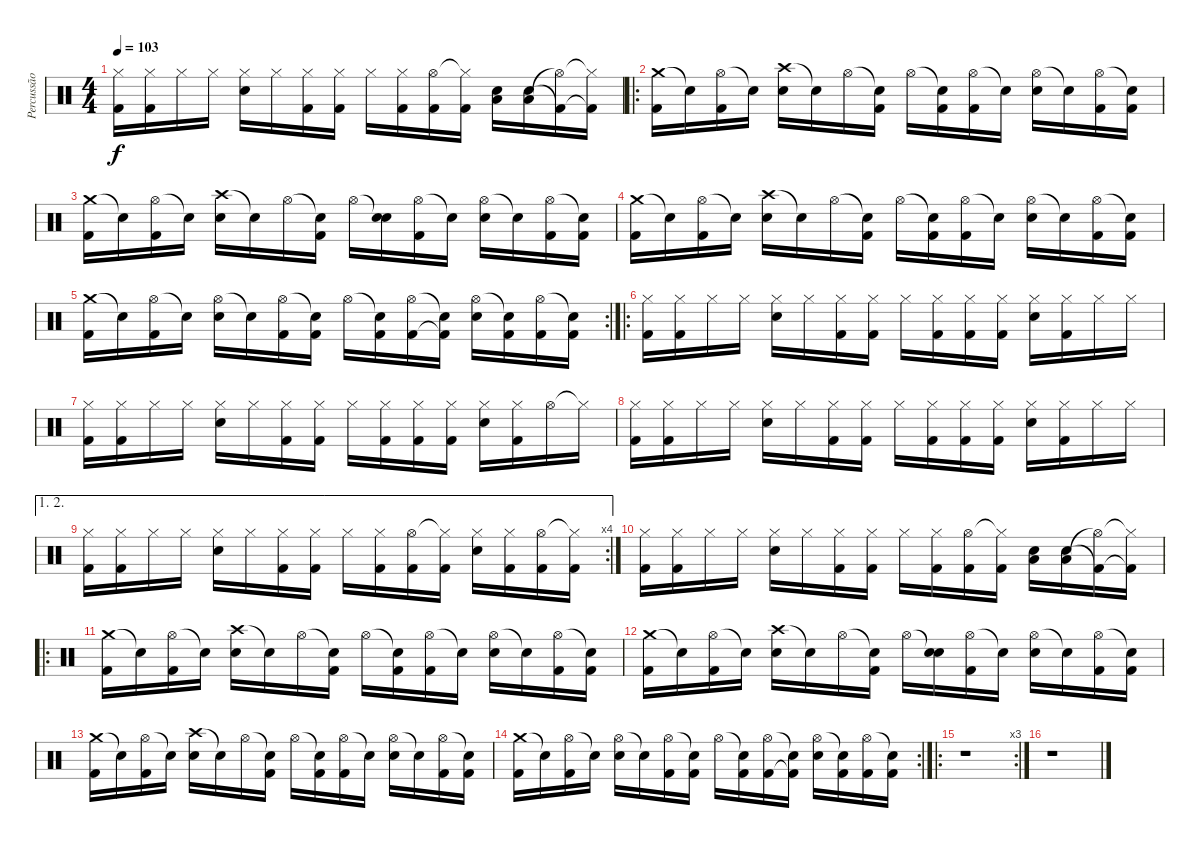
\track ("Percussão" "Percussão") {instrument percussion}
\staff {score}
\articulation defaults
\ts (4 4)
\tempo 103
\clef neutral
\ks c
("Hi-Hat (closed)" "Kick (hit) 2").16{dy f} ("Hi-Hat (closed)" "Kick (hit) 2").16 "Hi-Hat (closed)".16 "Hi-Hat (closed)".16 ("Hi-Hat (closed)" "Electric Snare (hit)").16 "Hi-Hat (closed)".16 ("Hi-Hat (closed)" "Kick (hit) 2").16 ("Hi-Hat (closed)" "Kick (hit) 2").16 "Hi-Hat (closed)".16 ("Hi-Hat (closed)" "Kick (hit) 2").16 ("Hi-Hat (open)" "Kick (hit) 2").16 ("Hi-Hat (closed)"{t} "Kick (hit) 2").16 ("Low Floor Tom (hit)" "Electric Snare (hit)").16 ("Low Floor Tom (hit)" "Electric Snare (hit)").16 ("Hi-Hat (open)"{t} "Kick (hit) 2"{t}).16 ("Hi-Hat (closed)"{t} "Kick (hit) 2"{t}).16 |
\ro
("Crash medium (hit)" "Kick (hit) 2").16 "Snare (hit)"{t}.16 ("Hi-Hat (open)" "Kick (hit) 2").16 "Snare (hit)"{t}.16 ("Crash high (hit)" "Electric Snare (hit)").16 "Snare (hit)"{t}.16 "Hi-Hat (open)".16 ("Snare (hit)"{t} "Kick (hit) 2").16 "Hi-Hat (open)".16 ("Snare (hit)"{t} "Kick (hit) 2").16 ("Hi-Hat (open)" "Kick (hit) 2").16 "Snare (hit)"{t}.16 ("Hi-Hat (open)" "Electric Snare (hit)").16 "Snare (hit)"{t}.16 ("Hi-Hat (open)" "Kick (hit) 2").16 ("Snare (hit)"{t} "Kick (hit) 2").16 |
("Crash medium (hit)" "Kick (hit) 2").16 "Snare (hit)"{t}.16 ("Hi-Hat (open)" "Kick (hit) 2").16 "Snare (hit)"{t}.16 ("Crash high (hit)" "Electric Snare (hit)").16 "Snare (hit)"{t}.16 "Hi-Hat (open)".16 ("Snare (hit)"{t} "Kick (hit) 2").16 "Hi-Hat (open)".16 ("Snare (hit)"{t} "Electric Snare (hit)").16 ("Hi-Hat (open)" "Kick (hit) 2").16 "Snare (hit)"{t}.16 ("Hi-Hat (open)" "Electric Snare (hit)").16 "Snare (hit)"{t}.16 ("Hi-Hat (open)" "Kick (hit) 2").16 ("Snare (hit)"{t} "Kick (hit) 2").16 |
("Crash medium (hit)" "Kick (hit) 2").16 "Snare (hit)"{t}.16 ("Hi-Hat (open)" "Kick (hit) 2").16 "Snare (hit)"{t}.16 ("Crash high (hit)" "Electric Snare (hit)").16 "Snare (hit)"{t}.16 "Hi-Hat (open)".16 ("Snare (hit)"{t} "Kick (hit) 2").16 "Hi-Hat (open)".16 ("Snare (hit)"{t} "Kick (hit) 2").16 ("Hi-Hat (open)" "Kick (hit) 2").16 "Snare (hit)"{t}.16 ("Hi-Hat (open)" "Electric Snare (hit)").16 "Snare (hit)"{t}.16 ("Hi-Hat (open)" "Kick (hit) 2").16 ("Snare (hit)"{t} "Kick (hit) 2").16 |
\rc 2
("Crash medium (hit)" "Kick (hit) 2").16 "Snare (hit)"{t}.16 ("Hi-Hat (open)" "Kick (hit) 2").16 "Snare (hit)"{t}.16 ("Hi-Hat (open)" "Electric Snare (hit)").16 "Snare (hit)"{t}.16 ("Hi-Hat (open)" "Kick (hit) 2").16 ("Snare (hit)"{t} "Kick (hit) 2").16 "Hi-Hat (open)".16 ("Snare (hit)"{t} "Kick (hit) 2").16 ("Hi-Hat (open)" "Kick (hit) 2").16 ("Snare (hit)"{t} "Kick (hit) 2"{t}).16 ("Hi-Hat (open)" "Electric Snare (hit)").16 ("Snare (hit)"{t} "Kick (hit) 2").16 ("Hi-Hat (open)" "Kick (hit) 2").16 ("Snare (hit)"{t} "Kick (hit) 2").16 |
\ro
("Hi-Hat (closed)" "Kick (hit) 2").16 ("Hi-Hat (closed)" "Kick (hit) 2").16 "Hi-Hat (closed)".16 "Hi-Hat (closed)".16 ("Hi-Hat (closed)" "Electric Snare (hit)").16 "Hi-Hat (closed)".16 ("Hi-Hat (closed)" "Kick (hit) 2").16 ("Hi-Hat (closed)" "Kick (hit) 2").16 "Hi-Hat (closed)".16 ("Hi-Hat (closed)" "Kick (hit) 2").16 ("Hi-Hat (closed)" "Kick (hit) 2").16 ("Hi-Hat (closed)" "Kick (hit) 2").16 ("Hi-Hat (closed)" "Electric Snare (hit)").16 ("Hi-Hat (closed)" "Kick (hit) 2").16 "Hi-Hat (closed)".16 "Hi-Hat (closed)".16 |
("Hi-Hat (closed)" "Kick (hit) 2").16 ("Hi-Hat (closed)" "Kick (hit) 2").16 "Hi-Hat (closed)".16 "Hi-Hat (closed)".16 ("Hi-Hat (closed)" "Electric Snare (hit)").16 "Hi-Hat (closed)".16 ("Hi-Hat (closed)" "Kick (hit) 2").16 ("Hi-Hat (closed)" "Kick (hit) 2").16 "Hi-Hat (closed)".16 ("Hi-Hat (closed)" "Kick (hit) 2").16 ("Hi-Hat (closed)" "Kick (hit) 2").16 ("Hi-Hat (closed)" "Kick (hit) 2").16 ("Hi-Hat (closed)" "Electric Snare (hit)").16 ("Hi-Hat (closed)" "Kick (hit) 2").16 "Hi-Hat (open)".16 "Hi-Hat (closed)"{t}.16 |
("Hi-Hat (closed)" "Kick (hit) 2").16 ("Hi-Hat (closed)" "Kick (hit) 2").16 "Hi-Hat (closed)".16 "Hi-Hat (closed)".16 ("Hi-Hat (closed)" "Electric Snare (hit)").16 "Hi-Hat (closed)".16 ("Hi-Hat (closed)" "Kick (hit) 2").16 ("Hi-Hat (closed)" "Kick (hit) 2").16 "Hi-Hat (closed)".16 ("Hi-Hat (closed)" "Kick (hit) 2").16 ("Hi-Hat (closed)" "Kick (hit) 2").16 ("Hi-Hat (closed)" "Kick (hit) 2").16 ("Hi-Hat (closed)" "Electric Snare (hit)").16 ("Hi-Hat (closed)" "Kick (hit) 2").16 "Hi-Hat (closed)".16 "Hi-Hat (closed)".16 |
\ae (1 2)
\rc 4
("Hi-Hat (closed)" "Kick (hit) 2").16 ("Hi-Hat (closed)" "Kick (hit) 2").16 "Hi-Hat (closed)".16 "Hi-Hat (closed)".16 ("Hi-Hat (closed)" "Electric Snare (hit)").16 "Hi-Hat (closed)".16 ("Hi-Hat (closed)" "Kick (hit) 2").16 ("Hi-Hat (closed)" "Kick (hit) 2").16 "Hi-Hat (closed)".16 ("Hi-Hat (closed)" "Kick (hit) 2").16 ("Hi-Hat (open)" "Kick (hit) 2").16 ("Hi-Hat (closed)"{t} "Kick (hit) 2").16 ("Hi-Hat (closed)" "Electric Snare (hit)").16 ("Hi-Hat (closed)" "Kick (hit) 2").16 ("Hi-Hat (open)" "Kick (hit) 2").16 ("Hi-Hat (closed)"{t} "Kick (hit) 2").16 |
("Hi-Hat (closed)" "Kick (hit) 2").16 ("Hi-Hat (closed)" "Kick (hit) 2").16 "Hi-Hat (closed)".16 "Hi-Hat (closed)".16 ("Hi-Hat (closed)" "Electric Snare (hit)").16 "Hi-Hat (closed)".16 ("Hi-Hat (closed)" "Kick (hit) 2").16 ("Hi-Hat (closed)" "Kick (hit) 2").16 "Hi-Hat (closed)".16 ("Hi-Hat (closed)" "Kick (hit) 2").16 ("Hi-Hat (open)" "Kick (hit) 2").16 ("Hi-Hat (closed)"{t} "Kick (hit) 2").16 ("Low Floor Tom (hit)" "Electric Snare (hit)").16 ("Low Floor Tom (hit)" "Electric Snare (hit)").16 ("Hi-Hat (open)"{t} "Kick (hit) 2"{t}).16 ("Hi-Hat (closed)"{t} "Kick (hit) 2"{t}).16 |
\ro
("Crash medium (hit)" "Kick (hit) 2").16 "Snare (hit)"{t}.16 ("Hi-Hat (open)" "Kick (hit) 2").16 "Snare (hit)"{t}.16 ("Crash high (hit)" "Electric Snare (hit)").16 "Snare (hit)"{t}.16 "Hi-Hat (open)".16 ("Snare (hit)"{t} "Kick (hit) 2").16 "Hi-Hat (open)".16 ("Snare (hit)"{t} "Kick (hit) 2").16 ("Hi-Hat (open)" "Kick (hit) 2").16 "Snare (hit)"{t}.16 ("Hi-Hat (open)" "Electric Snare (hit)").16 "Snare (hit)"{t}.16 ("Hi-Hat (open)" "Kick (hit) 2").16 ("Snare (hit)"{t} "Kick (hit) 2").16 |
("Crash medium (hit)" "Kick (hit) 2").16 "Snare (hit)"{t}.16 ("Hi-Hat (open)" "Kick (hit) 2").16 "Snare (hit)"{t}.16 ("Crash high (hit)" "Electric Snare (hit)").16 "Snare (hit)"{t}.16 "Hi-Hat (open)".16 ("Snare (hit)"{t} "Kick (hit) 2").16 "Hi-Hat (open)".16 ("Snare (hit)"{t} "Electric Snare (hit)").16 ("Hi-Hat (open)" "Kick (hit) 2").16 "Snare (hit)"{t}.16 ("Hi-Hat (open)" "Electric Snare (hit)").16 "Snare (hit)"{t}.16 ("Hi-Hat (open)" "Kick (hit) 2").16 ("Snare (hit)"{t} "Kick (hit) 2").16 |
("Crash medium (hit)" "Kick (hit) 2").16 "Snare (hit)"{t}.16 ("Hi-Hat (open)" "Kick (hit) 2").16 "Snare (hit)"{t}.16 ("Crash high (hit)" "Electric Snare (hit)").16 "Snare (hit)"{t}.16 "Hi-Hat (open)".16 ("Snare (hit)"{t} "Kick (hit) 2").16 "Hi-Hat (open)".16 ("Snare (hit)"{t} "Kick (hit) 2").16 ("Hi-Hat (open)" "Kick (hit) 2").16 "Snare (hit)"{t}.16 ("Hi-Hat (open)" "Electric Snare (hit)").16 "Snare (hit)"{t}.16 ("Hi-Hat (open)" "Kick (hit) 2").16 ("Snare (hit)"{t} "Kick (hit) 2").16 |
\rc 2
("Crash medium (hit)" "Kick (hit) 2").16 "Snare (hit)"{t}.16 ("Hi-Hat (open)" "Kick (hit) 2").16 "Snare (hit)"{t}.16 ("Hi-Hat (open)" "Electric Snare (hit)").16 "Snare (hit)"{t}.16 ("Hi-Hat (open)" "Kick (hit) 2").16 ("Snare (hit)"{t} "Kick (hit) 2").16 "Hi-Hat (open)".16 ("Snare (hit)"{t} "Kick (hit) 2").16 ("Hi-Hat (open)" "Kick (hit) 2").16 ("Snare (hit)"{t} "Kick (hit) 2"{t}).16 ("Hi-Hat (open)" "Electric Snare (hit)").16 ("Snare (hit)"{t} "Kick (hit) 2").16 ("Hi-Hat (open)" "Kick (hit) 2").16 ("Snare (hit)"{t} "Kick (hit) 2").16 |
\ro
\rc 3
r.1 |
r.1
